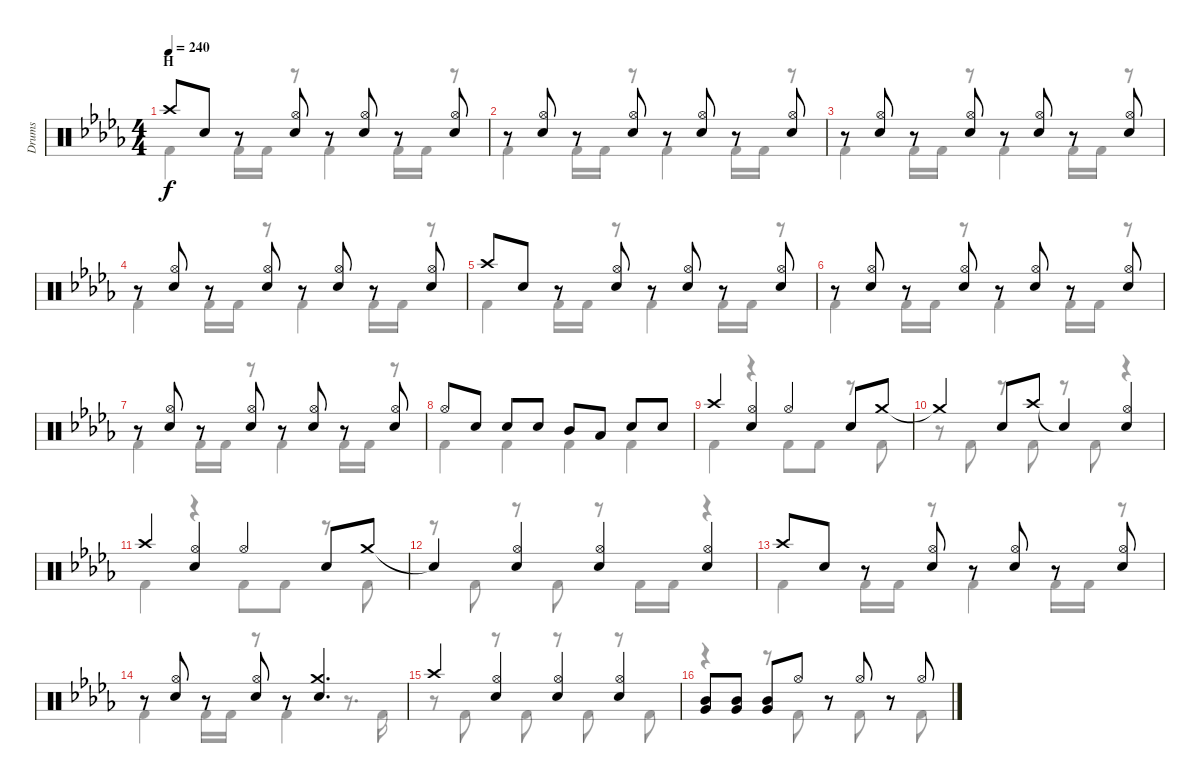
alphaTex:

\track ("Drums" "Drums") {instrument percussion}
\staff {score}
\articulation defaults
\voice
\ts (4 4)
\section ("" "H")
\tempo 240
\clef neutral
\ks db "Crash high (hit)".8{dy f} "Snare (hit) 2".8
r.8 ("Hi-Hat (open)" "Snare (hit) 2").8 r.8 ("Hi-Hat (open)" "Snare (hit) 2").8 r.8 ("Hi-Hat (open)" "Snare (hit) 2").8 |
r.8 ("Hi-Hat (open)" "Snare (hit) 2").8 r.8 ("Hi-Hat (open)" "Snare (hit) 2").8 r.8 ("Hi-Hat (open)" "Snare (hit) 2").8 r.8 ("Hi-Hat (open)" "Snare (hit) 2").8 |
r.8 ("Hi-Hat (open)" "Snare (hit) 2").8 r.8 ("Hi-Hat (open)" "Snare (hit) 2").8 r.8 ("Hi-Hat (open)" "Snare (hit) 2").8 r.8 ("Hi-Hat (open)" "Snare (hit) 2").8 |
r.8 ("Hi-Hat (open)" "Snare (hit) 2").8 r.8 ("Hi-Hat (open)" "Snare (hit) 2").8 r.8 ("Hi-Hat (open)" "Snare (hit) 2").8 r.8 ("Hi-Hat (open)" "Snare (hit) 2").8 |
"Crash high (hit)".8 "Snare (hit) 2".8 r.8 ("Hi-Hat (open)" "Snare (hit) 2").8 r.8 ("Hi-Hat (open)" "Snare (hit) 2").8 r.8 ("Hi-Hat (open)" "Snare (hit) 2").8 |
r.8 ("Hi-Hat (open)" "Snare (hit) 2").8 r.8 ("Hi-Hat (open)" "Snare (hit) 2").8 r.8 ("Hi-Hat (open)" "Snare (hit) 2").8 r.8 ("Hi-Hat (open)" "Snare (hit) 2").8 |
r.8 ("Hi-Hat (open)" "Snare (hit) 2").8 r.8 ("Hi-Hat (open)" "Snare (hit) 2").8 r.8 ("Hi-Hat (open)" "Snare (hit) 2").8 r.8 ("Hi-Hat (open)" "Snare (hit) 2").8 |
"Hi-Hat (open)".8 "Snare (hit) 2".8 "Snare (hit) 2".8 "Snare (hit) 2".8 "Mid Tom (hit)".8 "Low Tom (hit)".8 "Snare (hit) 2".8 "Snare (hit) 2".8 |
"Crash high (hit)".4 ("Hi-Hat (open)" "Snare (hit) 2").4 "Hi-Hat (open)".4 "Snare (hit) 2".8 "Crash medium (hit)".8 |
"Crash medium (hit)"{t}.4 "Snare (hit) 2".8 "Crash high (hit)".8 "Snare (hit)"{t}.4 ("Hi-Hat (open)" "Snare (hit) 2").4 |
"Crash high (hit)".4 ("Hi-Hat (open)" "Snare (hit) 2").4 "Hi-Hat (open)".4 "Snare (hit) 2".8 "Crash medium (hit)".8 |
"Snare (hit)"{t}.4 ("Hi-Hat (open)" "Snare (hit) 2").4 ("Hi-Hat (open)" "Snare (hit) 2").4 ("Hi-Hat (open)" "Snare (hit) 2").4 |
"Crash high (hit)".8 "Snare (hit) 2".8 r.8 ("Hi-Hat (open)" "Snare (hit) 2").8 r.8 ("Hi-Hat (open)" "Snare (hit) 2").8 r.8 ("Hi-Hat (open)" "Snare (hit) 2").8 |
r.8 ("Hi-Hat (open)" "Snare (hit) 2").8 r.8 ("Hi-Hat (open)" "Snare (hit) 2").8 r.8 ("Crash medium (hit)" "Snare (hit) 2").4{d} |
"Crash high (hit)".4 ("Hi-Hat (open)" "Snare (hit) 2").4 ("Hi-Hat (open)" "Snare (hit) 2").4 ("Hi-Hat (open)" "Snare (hit) 2").4 |
("Mid Tom (hit)" "Very Low Tom (hit)").8 ("Mid Tom (hit)" "Very Low Tom (hit)").8 ("Mid Tom (hit)" "Very Low Tom (hit)").8 "Hi-Hat (open)".8 r.8 "Hi-Hat (open)".8 r.8 "Hi-Hat (open)".8
\voice
\clef neutral
\ottava regular
\simile none
\ks db "Kick (hit) 2".4{dy f} "Kick (hit) 2".16 "Kick (hit) 2".16
r.8 "Kick (hit) 2".4 "Kick (hit) 2".16 "Kick (hit) 2".16 r.8 |
"Kick (hit) 2".4 "Kick (hit) 2".16 "Kick (hit) 2".16 r.8 "Kick (hit) 2".4 "Kick (hit) 2".16 "Kick (hit) 2".16 r.8 |
"Kick (hit) 2".4 "Kick (hit) 2".16 "Kick (hit) 2".16 r.8 "Kick (hit) 2".4 "Kick (hit) 2".16 "Kick (hit) 2".16 r.8 |
"Kick (hit) 2".4 "Kick (hit) 2".16 "Kick (hit) 2".16 r.8 "Kick (hit) 2".4 "Kick (hit) 2".16 "Kick (hit) 2".16 r.8 |
"Kick (hit) 2".4 "Kick (hit) 2".16 "Kick (hit) 2".16 r.8 "Kick (hit) 2".4 "Kick (hit) 2".16 "Kick (hit) 2".16 r.8 |
"Kick (hit) 2".4 "Kick (hit) 2".16 "Kick (hit) 2".16 r.8 "Kick (hit) 2".4 "Kick (hit) 2".16 "Kick (hit) 2".16 r.8 |
"Kick (hit) 2".4 "Kick (hit) 2".16 "Kick (hit) 2".16 r.8 "Kick (hit) 2".4 "Kick (hit) 2".16 "Kick (hit) 2".16 r.8 |
"Kick (hit) 2".4 "Kick (hit) 2".4 "Kick (hit) 2".4 "Kick (hit) 2".4 |
"Kick (hit) 2".4 r.4 "Kick (hit) 2".8 "Kick (hit) 2".8 r.8 "Kick (hit) 2".8 |
r.8 "Kick (hit) 2".8 r.8 "Kick (hit) 2".8 r.8 "Kick (hit) 2".8 r.4 |
"Kick (hit) 2".4 r.4 "Kick (hit) 2".8 "Kick (hit) 2".8 r.8 "Kick (hit) 2".8 |
r.8 "Kick (hit) 2".8 r.8 "Kick (hit) 2".8 r.8 "Kick (hit) 2".16 "Kick (hit) 2".16 r.4 |
"Kick (hit) 2".4 "Kick (hit) 2".16 "Kick (hit) 2".16 r.8 "Kick (hit) 2".4 "Kick (hit) 2".16 "Kick (hit) 2".16 r.8 |
"Kick (hit) 2".4 "Kick (hit) 2".16 "Kick (hit) 2".16 r.8 "Kick (hit) 2".4 r.8{d} "Kick (hit) 2".16 |
r.8 "Kick (hit) 2".8 r.8 "Kick (hit) 2".8 r.8 "Kick (hit) 2".8 r.8 "Kick (hit) 2".8 |
r.4 r.8 "Kick (hit) 2".8 r.8 "Kick (hit) 2".8 r.8 "Kick (hit) 2".8
